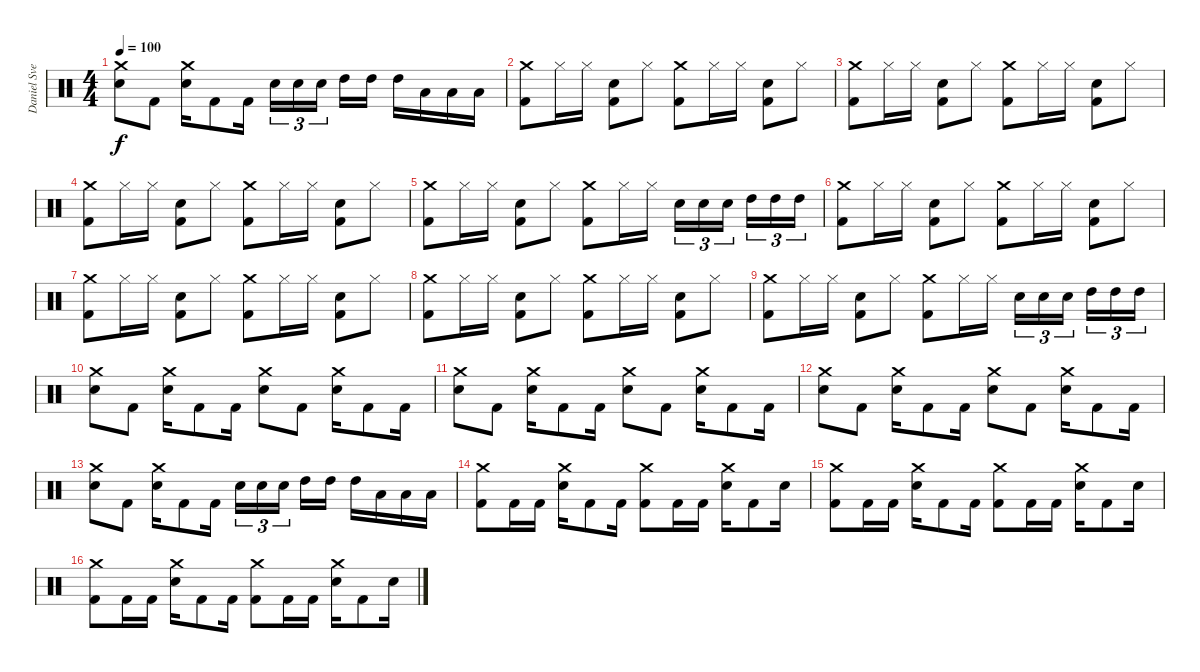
\track ("Daniel Svennson" "Daniel Sve") {instrument percussion}
\staff {score}
\articulation defaults
\ts (4 4)
\tempo 100
\clef neutral
\ks c
("Snare (hit) 2" "Crash medium (hit)").8{dy f} "Kick (hit) 2".8 ("Snare (hit) 2" "Crash medium (hit)").16 "Kick (hit) 2".8 "Kick (hit) 2".16 "Snare (hit) 2".16{tu (3 2)} "Snare (hit) 2".16{tu (3 2)} "Snare (hit) 2".16{tu (3 2)} "High Tom (hit)".16 "High Tom (hit)".16 "High Tom (hit)".16 "Low Tom (hit)".16 "Low Tom (hit)".16 "Low Floor Tom (hit)".16 |
("Crash medium (hit)" "Kick (hit) 2").8 "Hi-Hat (closed)".16 "Hi-Hat (closed)".16 ("Snare (hit) 2" "Kick (hit) 2").8 "Hi-Hat (closed)".8 ("Crash medium (hit)" "Kick (hit) 2").8 "Hi-Hat (closed)".16 "Hi-Hat (closed)".16 ("Snare (hit) 2" "Kick (hit) 2").8 "Hi-Hat (closed)".8 |
("Crash medium (hit)" "Kick (hit) 2").8 "Hi-Hat (closed)".16 "Hi-Hat (closed)".16 ("Snare (hit) 2" "Kick (hit) 2").8 "Hi-Hat (closed)".8 ("Crash medium (hit)" "Kick (hit) 2").8 "Hi-Hat (closed)".16 "Hi-Hat (closed)".16 ("Snare (hit) 2" "Kick (hit) 2").8 "Hi-Hat (closed)".8 |
("Crash medium (hit)" "Kick (hit) 2").8 "Hi-Hat (closed)".16 "Hi-Hat (closed)".16 ("Snare (hit) 2" "Kick (hit) 2").8 "Hi-Hat (closed)".8 ("Crash medium (hit)" "Kick (hit) 2").8 "Hi-Hat (closed)".16 "Hi-Hat (closed)".16 ("Snare (hit) 2" "Kick (hit) 2").8 "Hi-Hat (closed)".8 |
("Crash medium (hit)" "Kick (hit) 2").8 "Hi-Hat (closed)".16 "Hi-Hat (closed)".16 ("Snare (hit) 2" "Kick (hit) 2").8 "Hi-Hat (closed)".8 ("Crash medium (hit)" "Kick (hit) 2").8 "Hi-Hat (closed)".16 "Hi-Hat (closed)".16 "Snare (hit) 2".16{tu (3 2)} "Snare (hit) 2".16{tu (3 2)} "Snare (hit) 2".16{tu (3 2)} "High Tom (hit)".16{tu (3 2)} "High Tom (hit)".16{tu (3 2)} "High Tom (hit)".16{tu (3 2)} |
("Crash medium (hit)" "Kick (hit) 2").8 "Hi-Hat (closed)".16 "Hi-Hat (closed)".16 ("Snare (hit) 2" "Kick (hit) 2").8 "Hi-Hat (closed)".8 ("Crash medium (hit)" "Kick (hit) 2").8 "Hi-Hat (closed)".16 "Hi-Hat (closed)".16 ("Snare (hit) 2" "Kick (hit) 2").8 "Hi-Hat (closed)".8 |
("Crash medium (hit)" "Kick (hit) 2").8 "Hi-Hat (closed)".16 "Hi-Hat (closed)".16 ("Snare (hit) 2" "Kick (hit) 2").8 "Hi-Hat (closed)".8 ("Crash medium (hit)" "Kick (hit) 2").8 "Hi-Hat (closed)".16 "Hi-Hat (closed)".16 ("Snare (hit) 2" "Kick (hit) 2").8 "Hi-Hat (closed)".8 |
("Crash medium (hit)" "Kick (hit) 2").8 "Hi-Hat (closed)".16 "Hi-Hat (closed)".16 ("Snare (hit) 2" "Kick (hit) 2").8 "Hi-Hat (closed)".8 ("Crash medium (hit)" "Kick (hit) 2").8 "Hi-Hat (closed)".16 "Hi-Hat (closed)".16 ("Snare (hit) 2" "Kick (hit) 2").8 "Hi-Hat (closed)".8 |
("Crash medium (hit)" "Kick (hit) 2").8 "Hi-Hat (closed)".16 "Hi-Hat (closed)".16 ("Snare (hit) 2" "Kick (hit) 2").8 "Hi-Hat (closed)".8 ("Crash medium (hit)" "Kick (hit) 2").8 "Hi-Hat (closed)".16 "Hi-Hat (closed)".16 "Snare (hit) 2".16{tu (3 2)} "Snare (hit) 2".16{tu (3 2)} "Snare (hit) 2".16{tu (3 2)} "High Tom (hit)".16{tu (3 2)} "High Tom (hit)".16{tu (3 2)} "High Tom (hit)".16{tu (3 2)} |
("Snare (hit) 2" "Crash medium (hit)").8 "Kick (hit) 2".8 ("Snare (hit) 2" "Crash medium (hit)").16 "Kick (hit) 2".8 "Kick (hit) 2".16 ("Snare (hit) 2" "Crash medium (hit)").8 "Kick (hit) 2".8 ("Snare (hit) 2" "Crash medium (hit)").16 "Kick (hit) 2".8 "Kick (hit) 2".16 |
("Snare (hit) 2" "Crash medium (hit)").8 "Kick (hit) 2".8 ("Snare (hit) 2" "Crash medium (hit)").16 "Kick (hit) 2".8 "Kick (hit) 2".16 ("Snare (hit) 2" "Crash medium (hit)").8 "Kick (hit) 2".8 ("Snare (hit) 2" "Crash medium (hit)").16 "Kick (hit) 2".8 "Kick (hit) 2".16 |
("Snare (hit) 2" "Crash medium (hit)").8 "Kick (hit) 2".8 ("Snare (hit) 2" "Crash medium (hit)").16 "Kick (hit) 2".8 "Kick (hit) 2".16 ("Snare (hit) 2" "Crash medium (hit)").8 "Kick (hit) 2".8 ("Snare (hit) 2" "Crash medium (hit)").16 "Kick (hit) 2".8 "Kick (hit) 2".16 |
("Snare (hit) 2" "Crash medium (hit)").8 "Kick (hit) 2".8 ("Snare (hit) 2" "Crash medium (hit)").16 "Kick (hit) 2".8 "Kick (hit) 2".16 "Snare (hit) 2".16{tu (3 2)} "Snare (hit) 2".16{tu (3 2)} "Snare (hit) 2".16{tu (3 2)} "High Tom (hit)".16 "High Tom (hit)".16 "High Tom (hit)".16 "Low Tom (hit)".16 "Low Tom (hit)".16 "Low Floor Tom (hit)".16 |
("Kick (hit) 2" "Crash medium (hit)").8 "Kick (hit) 2".16 "Kick (hit) 2".16 ("Snare (hit) 2" "Crash medium (hit)").16 "Kick (hit) 2".8 "Kick (hit) 2".16 ("Kick (hit) 2" "Crash medium (hit)").8 "Kick (hit) 2".16 "Kick (hit) 2".16 ("Snare (hit) 2" "Crash medium (hit)").16 "Kick (hit) 2".8 "Snare (hit) 2".16 |
("Kick (hit) 2" "Crash medium (hit)").8 "Kick (hit) 2".16 "Kick (hit) 2".16 ("Snare (hit) 2" "Crash medium (hit)").16 "Kick (hit) 2".8 "Kick (hit) 2".16 ("Kick (hit) 2" "Crash medium (hit)").8 "Kick (hit) 2".16 "Kick (hit) 2".16 ("Snare (hit) 2" "Crash medium (hit)").16 "Kick (hit) 2".8 "Snare (hit) 2".16 |
("Kick (hit) 2" "Crash medium (hit)").8 "Kick (hit) 2".16 "Kick (hit) 2".16 ("Snare (hit) 2" "Crash medium (hit)").16 "Kick (hit) 2".8 "Kick (hit) 2".16 ("Kick (hit) 2" "Crash medium (hit)").8 "Kick (hit) 2".16 "Kick (hit) 2".16 ("Snare (hit) 2" "Crash medium (hit)").16 "Kick (hit) 2".8 "Snare (hit) 2".16
